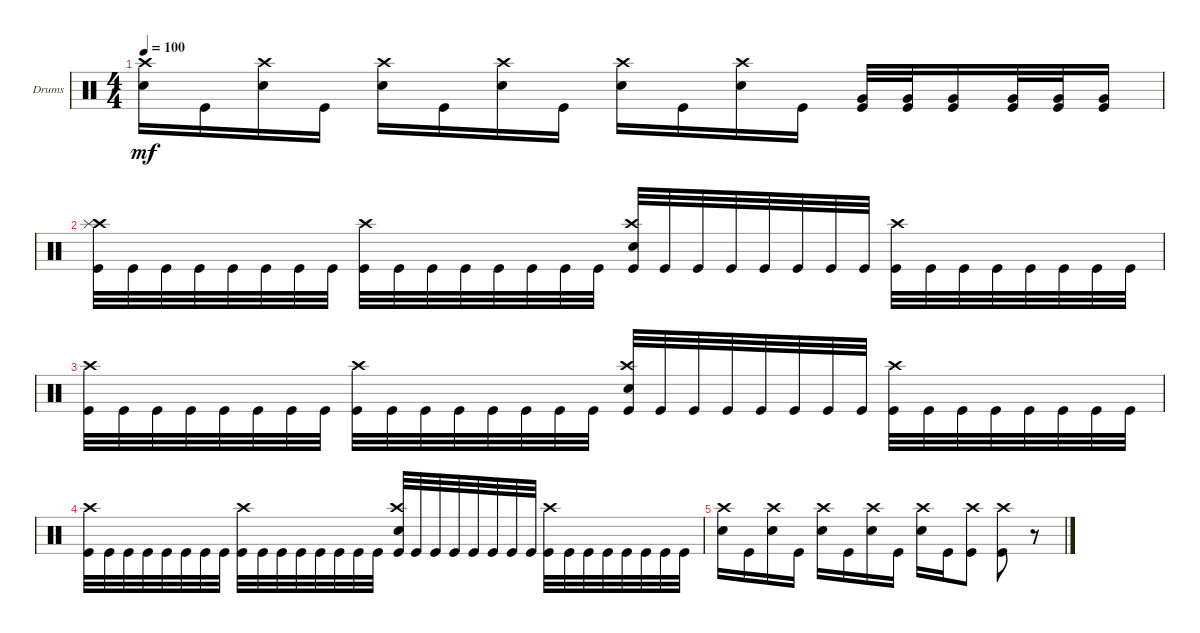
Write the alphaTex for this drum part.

\bracketExtendMode groupsimilarinstruments
\firstSystemTrackNameOrientation horizontal
\otherSystemsTrackNameOrientation horizontal
\track ("Drumkit" "Drums") {instrument percussion}
\staff {score}
\articulation defaults
\ts (4 4)
\tempo 100
\clef neutral
\ks c
("Snare (hit) 2" "Crash high (hit)").16{dy mf} "Kick (hit)".16 ("Snare (hit) 2" "Crash high (hit)").16 "Kick (hit)".16 ("Snare (hit) 2" "Crash high (hit)").16 "Kick (hit)".16 ("Snare (hit) 2" "Crash high (hit)").16 "Kick (hit)".16 ("Snare (hit) 2" "Crash high (hit)").16 "Kick (hit)".16 ("Snare (hit) 2" "Crash high (hit)").16 "Kick (hit)".16 ("Very Low Tom (hit)" "Kick (hit)").32 ("Very Low Tom (hit)" "Kick (hit)").32 ("Very Low Tom (hit)" "Kick (hit)").16 ("Very Low Tom (hit)" "Kick (hit)").32 ("Very Low Tom (hit)" "Kick (hit)").32 ("Very Low Tom (hit)" "Kick (hit)").16 |
("Kick (hit)" "Crash high (hit)" "Splash (hit)").32 "Kick (hit)".32 "Kick (hit)".32 "Kick (hit)".32 "Kick (hit)".32 "Kick (hit)".32 "Kick (hit)".32 "Kick (hit)".32 ("Kick (hit)" "Crash high (hit)").32 "Kick (hit)".32 "Kick (hit)".32 "Kick (hit)".32 "Kick (hit)".32 "Kick (hit)".32 "Kick (hit)".32 "Kick (hit)".32 ("Kick (hit)" "Crash high (hit)" "Snare (hit) 2").32 "Kick (hit)".32 "Kick (hit)".32 "Kick (hit)".32 "Kick (hit)".32 "Kick (hit)".32 "Kick (hit)".32 "Kick (hit)".32 ("Kick (hit)" "Crash high (hit)").32 "Kick (hit)".32 "Kick (hit)".32 "Kick (hit)".32 "Kick (hit)".32 "Kick (hit)".32 "Kick (hit)".32 "Kick (hit)".32 |
("Kick (hit)" "Crash high (hit)").32 "Kick (hit)".32 "Kick (hit)".32 "Kick (hit)".32 "Kick (hit)".32 "Kick (hit)".32 "Kick (hit)".32 "Kick (hit)".32 ("Kick (hit)" "Crash high (hit)").32 "Kick (hit)".32 "Kick (hit)".32 "Kick (hit)".32 "Kick (hit)".32 "Kick (hit)".32 "Kick (hit)".32 "Kick (hit)".32 ("Kick (hit)" "Crash high (hit)" "Snare (hit) 2").32 "Kick (hit)".32 "Kick (hit)".32 "Kick (hit)".32 "Kick (hit)".32 "Kick (hit)".32 "Kick (hit)".32 "Kick (hit)".32 ("Kick (hit)" "Crash high (hit)").32 "Kick (hit)".32 "Kick (hit)".32 "Kick (hit)".32 "Kick (hit)".32 "Kick (hit)".32 "Kick (hit)".32 "Kick (hit)".32 |
("Kick (hit)" "Crash high (hit)").32 "Kick (hit)".32 "Kick (hit)".32 "Kick (hit)".32 "Kick (hit)".32 "Kick (hit)".32 "Kick (hit)".32 "Kick (hit)".32 ("Kick (hit)" "Crash high (hit)").32 "Kick (hit)".32 "Kick (hit)".32 "Kick (hit)".32 "Kick (hit)".32 "Kick (hit)".32 "Kick (hit)".32 "Kick (hit)".32 ("Kick (hit)" "Crash high (hit)" "Snare (hit) 2").32 "Kick (hit)".32 "Kick (hit)".32 "Kick (hit)".32 "Kick (hit)".32 "Kick (hit)".32 "Kick (hit)".32 "Kick (hit)".32 ("Kick (hit)" "Crash high (hit)").32 "Kick (hit)".32 "Kick (hit)".32 "Kick (hit)".32 "Kick (hit)".32 "Kick (hit)".32 "Kick (hit)".32 "Kick (hit)".32 |
("Snare (hit) 2" "Crash high (hit)").16 "Kick (hit)".16 ("Snare (hit) 2" "Crash high (hit)").16 "Kick (hit)".16 ("Snare (hit) 2" "Crash high (hit)").16 "Kick (hit)".16 ("Snare (hit) 2" "Crash high (hit)").16 "Kick (hit)".16 ("Snare (hit) 2" "Crash high (hit)").16 "Kick (hit)".16 ("Kick (hit)" "Crash high (hit)").8 ("Kick (hit)" "Crash high (hit)").8 r.8
